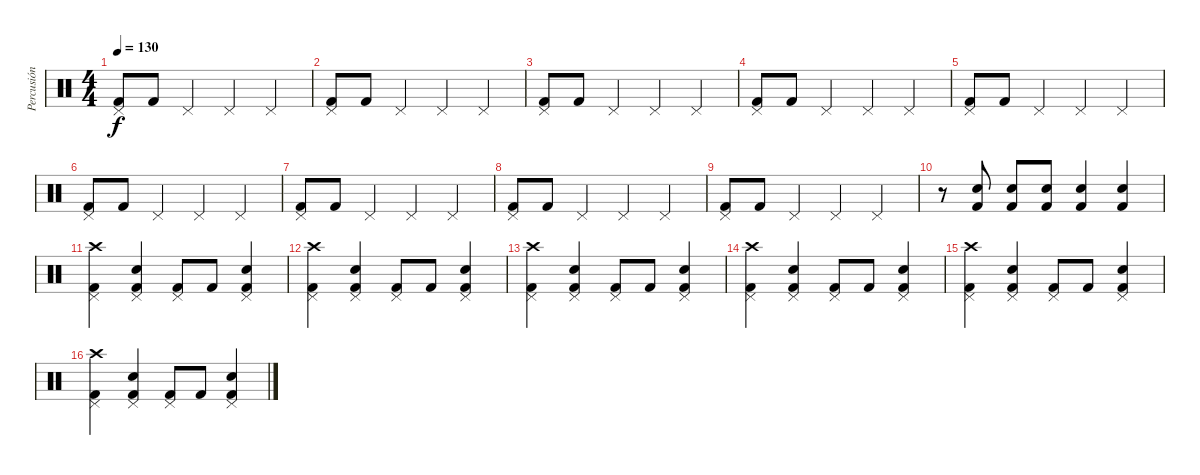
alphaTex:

\track ("Percusión" "Percusión") {instrument percussion}
\staff {score}
\articulation defaults
\ts (4 4)
\tempo 130
\clef neutral
\ks c
("Pedal Hi-Hat (hit)" "Kick (hit) 2").8{dy f} "Kick (hit) 2".8 "Pedal Hi-Hat (hit)".4 "Pedal Hi-Hat (hit)".4 "Pedal Hi-Hat (hit)".4 |
("Pedal Hi-Hat (hit)" "Kick (hit) 2").8 "Kick (hit) 2".8 "Pedal Hi-Hat (hit)".4 "Pedal Hi-Hat (hit)".4 "Pedal Hi-Hat (hit)".4 |
("Pedal Hi-Hat (hit)" "Kick (hit) 2").8 "Kick (hit) 2".8 "Pedal Hi-Hat (hit)".4 "Pedal Hi-Hat (hit)".4 "Pedal Hi-Hat (hit)".4 |
("Pedal Hi-Hat (hit)" "Kick (hit) 2").8 "Kick (hit) 2".8 "Pedal Hi-Hat (hit)".4 "Pedal Hi-Hat (hit)".4 "Pedal Hi-Hat (hit)".4 |
("Pedal Hi-Hat (hit)" "Kick (hit) 2").8 "Kick (hit) 2".8 "Pedal Hi-Hat (hit)".4 "Pedal Hi-Hat (hit)".4 "Pedal Hi-Hat (hit)".4 |
("Pedal Hi-Hat (hit)" "Kick (hit) 2").8 "Kick (hit) 2".8 "Pedal Hi-Hat (hit)".4 "Pedal Hi-Hat (hit)".4 "Pedal Hi-Hat (hit)".4 |
("Pedal Hi-Hat (hit)" "Kick (hit) 2").8 "Kick (hit) 2".8 "Pedal Hi-Hat (hit)".4 "Pedal Hi-Hat (hit)".4 "Pedal Hi-Hat (hit)".4 |
("Pedal Hi-Hat (hit)" "Kick (hit) 2").8 "Kick (hit) 2".8 "Pedal Hi-Hat (hit)".4 "Pedal Hi-Hat (hit)".4 "Pedal Hi-Hat (hit)".4 |
("Pedal Hi-Hat (hit)" "Kick (hit) 2").8 "Kick (hit) 2".8 "Pedal Hi-Hat (hit)".4 "Pedal Hi-Hat (hit)".4 "Pedal Hi-Hat (hit)".4 |
r.8 ("Kick (hit) 2" "Electric Snare (hit)").8 ("Kick (hit) 2" "Electric Snare (hit)").8 ("Kick (hit) 2" "Electric Snare (hit)").8 ("Kick (hit) 2" "Electric Snare (hit)").4 ("Electric Snare (hit)" "Kick (hit) 2").4 |
("Crash high (hit)" "Pedal Hi-Hat (hit)" "Kick (hit) 2").4 ("Pedal Hi-Hat (hit)" "Electric Snare (hit)" "Kick (hit) 2").4 ("Pedal Hi-Hat (hit)" "Kick (hit) 2").8 "Kick (hit) 2".8 ("Pedal Hi-Hat (hit)" "Kick (hit) 2" "Electric Snare (hit)").4 |
("Crash high (hit)" "Pedal Hi-Hat (hit)" "Kick (hit) 2").4 ("Pedal Hi-Hat (hit)" "Electric Snare (hit)" "Kick (hit) 2").4 ("Pedal Hi-Hat (hit)" "Kick (hit) 2").8 "Kick (hit) 2".8 ("Pedal Hi-Hat (hit)" "Kick (hit) 2" "Electric Snare (hit)").4 |
("Crash high (hit)" "Pedal Hi-Hat (hit)" "Kick (hit) 2").4 ("Pedal Hi-Hat (hit)" "Electric Snare (hit)" "Kick (hit) 2").4 ("Pedal Hi-Hat (hit)" "Kick (hit) 2").8 "Kick (hit) 2".8 ("Pedal Hi-Hat (hit)" "Kick (hit) 2" "Electric Snare (hit)").4 |
("Crash high (hit)" "Pedal Hi-Hat (hit)" "Kick (hit) 2").4 ("Pedal Hi-Hat (hit)" "Electric Snare (hit)" "Kick (hit) 2").4 ("Pedal Hi-Hat (hit)" "Kick (hit) 2").8 "Kick (hit) 2".8 ("Pedal Hi-Hat (hit)" "Kick (hit) 2" "Electric Snare (hit)").4 |
("Crash high (hit)" "Pedal Hi-Hat (hit)" "Kick (hit) 2").4 ("Pedal Hi-Hat (hit)" "Electric Snare (hit)" "Kick (hit) 2").4 ("Pedal Hi-Hat (hit)" "Kick (hit) 2").8 "Kick (hit) 2".8 ("Pedal Hi-Hat (hit)" "Kick (hit) 2" "Electric Snare (hit)").4 |
("Crash high (hit)" "Pedal Hi-Hat (hit)" "Kick (hit) 2").4 ("Pedal Hi-Hat (hit)" "Electric Snare (hit)" "Kick (hit) 2").4 ("Pedal Hi-Hat (hit)" "Kick (hit) 2").8 "Kick (hit) 2".8 ("Pedal Hi-Hat (hit)" "Kick (hit) 2" "Electric Snare (hit)").4
